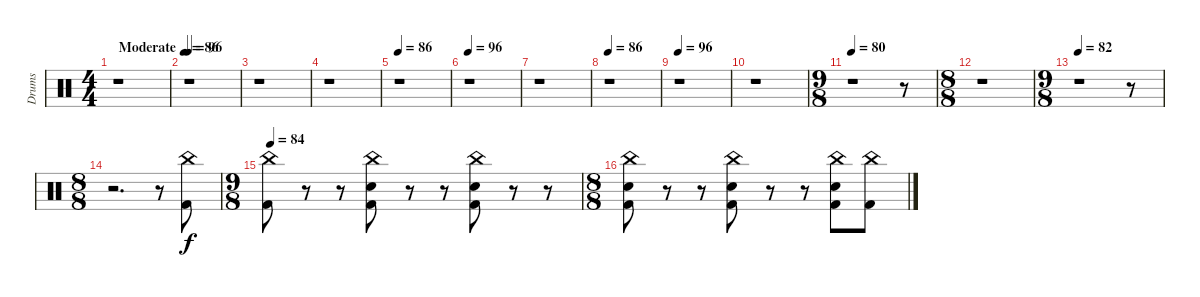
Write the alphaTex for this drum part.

\track ("Drums" "Drums") {instrument percussion}
\staff {score}
\articulation defaults
\ts (4 4)
\tempo (86 "Moderate")
\clef neutral
\ks c
r.1{dy f} |
\tempo 96
r.1 |
r.1 |
r.1 |
\tempo 86
r.1 |
\tempo 96
r.1 |
r.1 |
\tempo 86
r.1 |
\tempo 96
r.1 |
r.1 |
\ts (9 8)
\tempo 80
r.1 r.8 |
\ts (8 8)
r.1 |
\ts (9 8)
\tempo 82
r.1 r.8 |
\ts (8 8)
r.2{d} r.8 ("China (hit)" "Kick (hit) 2").8 |
\ts (9 8)
\tempo 84
("China (hit)" "Kick (hit) 2").8 r.8 r.8 ("China (hit)" "Electric Snare (hit)" "Kick (hit) 2").8 r.8 r.8 ("China (hit)" "Electric Snare (hit)" "Kick (hit) 2").8 r.8 r.8 |
\ts (8 8)
("China (hit)" "Electric Snare (hit)" "Kick (hit) 2").8 r.8 r.8 ("China (hit)" "Electric Snare (hit)" "Kick (hit) 2").8 r.8 r.8 ("China (hit)" "Electric Snare (hit)" "Kick (hit) 2").8 ("China (hit)" "Kick (hit) 2").8
